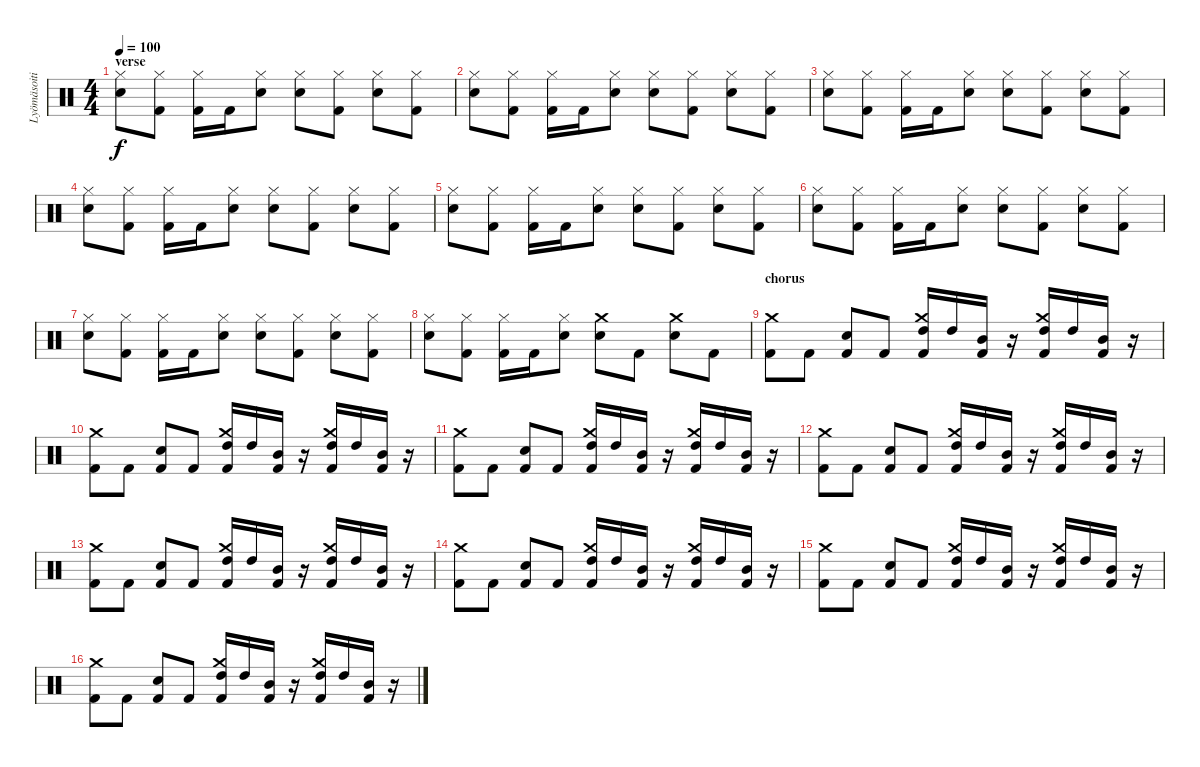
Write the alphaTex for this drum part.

\track ("Lyömäsoitin" "Lyömäsoiti") {instrument percussion}
\staff {score}
\articulation defaults
\ts (4 4)
\section ("" "verse")
\tempo 100
\clef neutral
\ks c
("Hi-Hat (closed)" "Snare (hit) 2").8{dy f} ("Hi-Hat (closed)" "Kick (hit) 2").8 ("Hi-Hat (closed)" "Kick (hit) 2").16 "Kick (hit) 2".16 ("Hi-Hat (closed)" "Snare (hit) 2").8 ("Hi-Hat (closed)" "Snare (hit) 2").8 ("Hi-Hat (closed)" "Kick (hit) 2").8 ("Hi-Hat (closed)" "Snare (hit) 2").8 ("Hi-Hat (closed)" "Kick (hit) 2").8 |
("Hi-Hat (closed)" "Snare (hit) 2").8 ("Hi-Hat (closed)" "Kick (hit) 2").8 ("Hi-Hat (closed)" "Kick (hit) 2").16 "Kick (hit) 2".16 ("Hi-Hat (closed)" "Snare (hit) 2").8 ("Hi-Hat (closed)" "Snare (hit) 2").8 ("Hi-Hat (closed)" "Kick (hit) 2").8 ("Hi-Hat (closed)" "Snare (hit) 2").8 ("Hi-Hat (closed)" "Kick (hit) 2").8 |
("Hi-Hat (closed)" "Snare (hit) 2").8 ("Hi-Hat (closed)" "Kick (hit) 2").8 ("Hi-Hat (closed)" "Kick (hit) 2").16 "Kick (hit) 2".16 ("Hi-Hat (closed)" "Snare (hit) 2").8 ("Hi-Hat (closed)" "Snare (hit) 2").8 ("Hi-Hat (closed)" "Kick (hit) 2").8 ("Hi-Hat (closed)" "Snare (hit) 2").8 ("Hi-Hat (closed)" "Kick (hit) 2").8 |
("Hi-Hat (closed)" "Snare (hit) 2").8 ("Hi-Hat (closed)" "Kick (hit) 2").8 ("Hi-Hat (closed)" "Kick (hit) 2").16 "Kick (hit) 2".16 ("Hi-Hat (closed)" "Snare (hit) 2").8 ("Hi-Hat (closed)" "Snare (hit) 2").8 ("Hi-Hat (closed)" "Kick (hit) 2").8 ("Hi-Hat (closed)" "Snare (hit) 2").8 ("Hi-Hat (closed)" "Kick (hit) 2").8 |
("Hi-Hat (closed)" "Snare (hit) 2").8 ("Hi-Hat (closed)" "Kick (hit) 2").8 ("Hi-Hat (closed)" "Kick (hit) 2").16 "Kick (hit) 2".16 ("Hi-Hat (closed)" "Snare (hit) 2").8 ("Hi-Hat (closed)" "Snare (hit) 2").8 ("Hi-Hat (closed)" "Kick (hit) 2").8 ("Hi-Hat (closed)" "Snare (hit) 2").8 ("Hi-Hat (closed)" "Kick (hit) 2").8 |
("Hi-Hat (closed)" "Snare (hit) 2").8 ("Hi-Hat (closed)" "Kick (hit) 2").8 ("Hi-Hat (closed)" "Kick (hit) 2").16 "Kick (hit) 2".16 ("Hi-Hat (closed)" "Snare (hit) 2").8 ("Hi-Hat (closed)" "Snare (hit) 2").8 ("Hi-Hat (closed)" "Kick (hit) 2").8 ("Hi-Hat (closed)" "Snare (hit) 2").8 ("Hi-Hat (closed)" "Kick (hit) 2").8 |
("Hi-Hat (closed)" "Snare (hit) 2").8 ("Hi-Hat (closed)" "Kick (hit) 2").8 ("Hi-Hat (closed)" "Kick (hit) 2").16 "Kick (hit) 2".16 ("Hi-Hat (closed)" "Snare (hit) 2").8 ("Hi-Hat (closed)" "Snare (hit) 2").8 ("Hi-Hat (closed)" "Kick (hit) 2").8 ("Hi-Hat (closed)" "Snare (hit) 2").8 ("Hi-Hat (closed)" "Kick (hit) 2").8 |
("Hi-Hat (closed)" "Snare (hit) 2").8 ("Hi-Hat (closed)" "Kick (hit) 2").8 ("Hi-Hat (closed)" "Kick (hit) 2").16 "Kick (hit) 2".16 ("Hi-Hat (closed)" "Snare (hit) 2").8 ("Crash medium (hit)" "Snare (hit) 2").8 "Kick (hit) 2".8 ("Crash medium (hit)" "Snare (hit) 2").8 "Kick (hit) 2".8 |
\section ("" "chorus")
("Crash medium (hit)" "Kick (hit) 2").8 "Kick (hit) 2".8 ("Snare (hit) 2" "Kick (hit) 2").8 "Kick (hit) 2".8 ("Crash medium (hit)" "High Tom (hit)" "Kick (hit) 2").16 "High Tom (hit)".16 ("Mid Tom (hit)" "Kick (hit) 2").16 r.16 ("Crash medium (hit)" "High Tom (hit)" "Kick (hit) 2").16 "High Tom (hit)".16 ("Mid Tom (hit)" "Kick (hit) 2").16 r.16 |
("Crash medium (hit)" "Kick (hit) 2").8 "Kick (hit) 2".8 ("Snare (hit) 2" "Kick (hit) 2").8 "Kick (hit) 2".8 ("Crash medium (hit)" "High Tom (hit)" "Kick (hit) 2").16 "High Tom (hit)".16 ("Mid Tom (hit)" "Kick (hit) 2").16 r.16 ("Crash medium (hit)" "High Tom (hit)" "Kick (hit) 2").16 "High Tom (hit)".16 ("Mid Tom (hit)" "Kick (hit) 2").16 r.16 |
("Crash medium (hit)" "Kick (hit) 2").8 "Kick (hit) 2".8 ("Snare (hit) 2" "Kick (hit) 2").8 "Kick (hit) 2".8 ("Crash medium (hit)" "High Tom (hit)" "Kick (hit) 2").16 "High Tom (hit)".16 ("Mid Tom (hit)" "Kick (hit) 2").16 r.16 ("Crash medium (hit)" "High Tom (hit)" "Kick (hit) 2").16 "High Tom (hit)".16 ("Mid Tom (hit)" "Kick (hit) 2").16 r.16 |
("Crash medium (hit)" "Kick (hit) 2").8 "Kick (hit) 2".8 ("Snare (hit) 2" "Kick (hit) 2").8 "Kick (hit) 2".8 ("Crash medium (hit)" "High Tom (hit)" "Kick (hit) 2").16 "High Tom (hit)".16 ("Mid Tom (hit)" "Kick (hit) 2").16 r.16 ("Crash medium (hit)" "High Tom (hit)" "Kick (hit) 2").16 "High Tom (hit)".16 ("Mid Tom (hit)" "Kick (hit) 2").16 r.16 |
("Crash medium (hit)" "Kick (hit) 2").8 "Kick (hit) 2".8 ("Snare (hit) 2" "Kick (hit) 2").8 "Kick (hit) 2".8 ("Crash medium (hit)" "High Tom (hit)" "Kick (hit) 2").16 "High Tom (hit)".16 ("Mid Tom (hit)" "Kick (hit) 2").16 r.16 ("Crash medium (hit)" "High Tom (hit)" "Kick (hit) 2").16 "High Tom (hit)".16 ("Mid Tom (hit)" "Kick (hit) 2").16 r.16 |
("Crash medium (hit)" "Kick (hit) 2").8 "Kick (hit) 2".8 ("Snare (hit) 2" "Kick (hit) 2").8 "Kick (hit) 2".8 ("Crash medium (hit)" "High Tom (hit)" "Kick (hit) 2").16 "High Tom (hit)".16 ("Mid Tom (hit)" "Kick (hit) 2").16 r.16 ("Crash medium (hit)" "High Tom (hit)" "Kick (hit) 2").16 "High Tom (hit)".16 ("Mid Tom (hit)" "Kick (hit) 2").16 r.16 |
("Crash medium (hit)" "Kick (hit) 2").8 "Kick (hit) 2".8 ("Snare (hit) 2" "Kick (hit) 2").8 "Kick (hit) 2".8 ("Crash medium (hit)" "High Tom (hit)" "Kick (hit) 2").16 "High Tom (hit)".16 ("Mid Tom (hit)" "Kick (hit) 2").16 r.16 ("Crash medium (hit)" "High Tom (hit)" "Kick (hit) 2").16 "High Tom (hit)".16 ("Mid Tom (hit)" "Kick (hit) 2").16 r.16 |
("Crash medium (hit)" "Kick (hit) 2").8 "Kick (hit) 2".8 ("Snare (hit) 2" "Kick (hit) 2").8 "Kick (hit) 2".8 ("Crash medium (hit)" "High Tom (hit)" "Kick (hit) 2").16 "High Tom (hit)".16 ("Mid Tom (hit)" "Kick (hit) 2").16 r.16 ("Crash medium (hit)" "High Tom (hit)" "Kick (hit) 2").16 "High Tom (hit)".16 ("Mid Tom (hit)" "Kick (hit) 2").16 r.16
